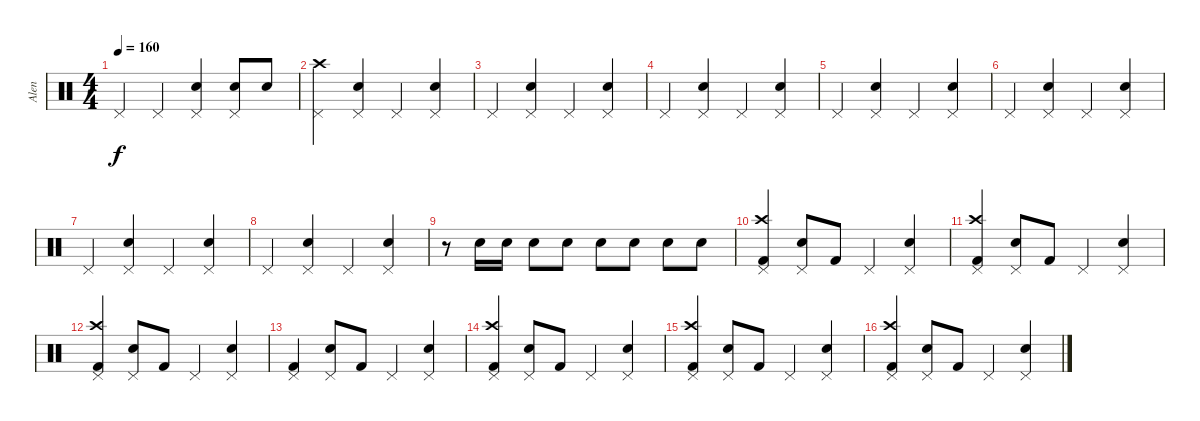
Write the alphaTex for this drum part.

\track ("Alen" "Alen") {instrument percussion}
\staff {score}
\articulation defaults
\ts (4 4)
\tempo 160
\clef neutral
\ks c "Pedal Hi-Hat (hit)".4{dy f} "Pedal Hi-Hat (hit)".4
("Pedal Hi-Hat (hit)" "Snare (hit) 2").4 ("Pedal Hi-Hat (hit)" "Snare (hit) 2").8 "Snare (hit) 2".8 |
("Pedal Hi-Hat (hit)" "Crash high (hit)").4 ("Pedal Hi-Hat (hit)" "Snare (hit) 2").4 "Pedal Hi-Hat (hit)".4 ("Pedal Hi-Hat (hit)" "Snare (hit) 2").4 |
"Pedal Hi-Hat (hit)".4 ("Pedal Hi-Hat (hit)" "Snare (hit) 2").4 "Pedal Hi-Hat (hit)".4 ("Pedal Hi-Hat (hit)" "Snare (hit) 2").4 |
"Pedal Hi-Hat (hit)".4 ("Pedal Hi-Hat (hit)" "Snare (hit) 2").4 "Pedal Hi-Hat (hit)".4 ("Pedal Hi-Hat (hit)" "Snare (hit) 2").4 |
"Pedal Hi-Hat (hit)".4 ("Pedal Hi-Hat (hit)" "Snare (hit) 2").4 "Pedal Hi-Hat (hit)".4 ("Pedal Hi-Hat (hit)" "Snare (hit) 2").4 |
"Pedal Hi-Hat (hit)".4 ("Pedal Hi-Hat (hit)" "Snare (hit) 2").4 "Pedal Hi-Hat (hit)".4 ("Pedal Hi-Hat (hit)" "Snare (hit) 2").4 |
"Pedal Hi-Hat (hit)".4 ("Pedal Hi-Hat (hit)" "Snare (hit) 2").4 "Pedal Hi-Hat (hit)".4 ("Pedal Hi-Hat (hit)" "Snare (hit) 2").4 |
"Pedal Hi-Hat (hit)".4 ("Pedal Hi-Hat (hit)" "Snare (hit) 2").4 "Pedal Hi-Hat (hit)".4 ("Pedal Hi-Hat (hit)" "Snare (hit) 2").4 |
r.8 "Snare (hit) 2".16 "Snare (hit) 2".16 "Snare (hit) 2".8 "Snare (hit) 2".8 "Snare (hit) 2".8 "Snare (hit) 2".8 "Snare (hit) 2".8 "Snare (hit) 2".8 |
("Crash high (hit)" "Pedal Hi-Hat (hit)" "Kick (hit) 2").4 ("Pedal Hi-Hat (hit)" "Snare (hit) 2").8 "Kick (hit) 2".8 "Pedal Hi-Hat (hit)".4 ("Pedal Hi-Hat (hit)" "Snare (hit) 2").4 |
("Crash high (hit)" "Pedal Hi-Hat (hit)" "Kick (hit) 2").4 ("Pedal Hi-Hat (hit)" "Snare (hit) 2").8 "Kick (hit) 2".8 "Pedal Hi-Hat (hit)".4 ("Pedal Hi-Hat (hit)" "Snare (hit) 2").4 |
("Crash high (hit)" "Pedal Hi-Hat (hit)" "Kick (hit) 2").4 ("Pedal Hi-Hat (hit)" "Snare (hit) 2").8 "Kick (hit) 2".8 "Pedal Hi-Hat (hit)".4 ("Pedal Hi-Hat (hit)" "Snare (hit) 2").4 |
("Pedal Hi-Hat (hit)" "Kick (hit) 2").4 ("Pedal Hi-Hat (hit)" "Snare (hit) 2").8 "Kick (hit) 2".8 "Pedal Hi-Hat (hit)".4 ("Pedal Hi-Hat (hit)" "Snare (hit) 2").4 |
("Crash high (hit)" "Pedal Hi-Hat (hit)" "Kick (hit) 2").4 ("Pedal Hi-Hat (hit)" "Snare (hit) 2").8 "Kick (hit) 2".8 "Pedal Hi-Hat (hit)".4 ("Pedal Hi-Hat (hit)" "Snare (hit) 2").4 |
("Crash high (hit)" "Pedal Hi-Hat (hit)" "Kick (hit) 2").4 ("Pedal Hi-Hat (hit)" "Snare (hit) 2").8 "Kick (hit) 2".8 "Pedal Hi-Hat (hit)".4 ("Pedal Hi-Hat (hit)" "Snare (hit) 2").4 |
("Crash high (hit)" "Pedal Hi-Hat (hit)" "Kick (hit) 2").4 ("Pedal Hi-Hat (hit)" "Snare (hit) 2").8 "Kick (hit) 2".8 "Pedal Hi-Hat (hit)".4 ("Pedal Hi-Hat (hit)" "Snare (hit) 2").4
